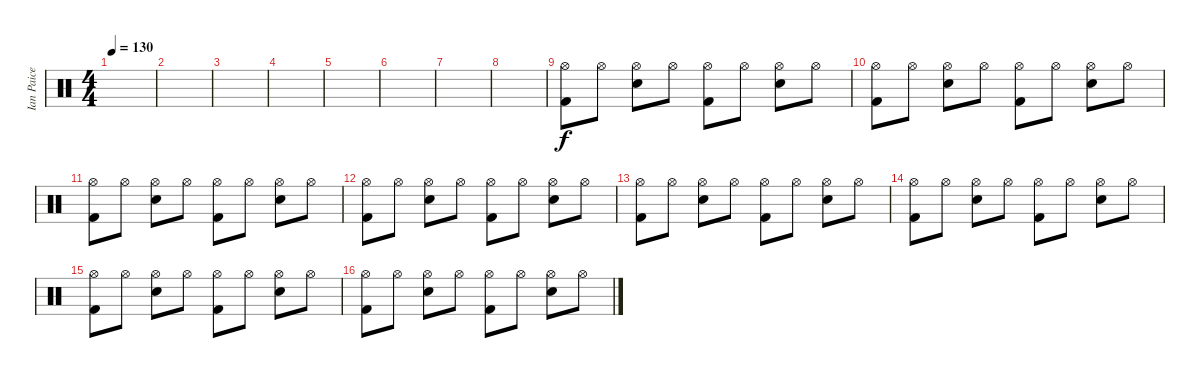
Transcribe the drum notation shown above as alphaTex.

\track ("Ian Paice" "Ian Paice") {instrument percussion}
\staff {score}
\articulation defaults
\ts (4 4)
\tempo 130
\clef neutral
\ks c
|
|
|
|
|
|
|
|
("Hi-Hat (open)" "Kick (hit) 2").8 "Hi-Hat (open)".8 ("Hi-Hat (open)" "Snare (hit) 2").8 "Hi-Hat (open)".8 ("Hi-Hat (open)" "Kick (hit) 2").8 "Hi-Hat (open)".8 ("Hi-Hat (open)" "Snare (hit) 2").8 "Hi-Hat (open)".8 |
("Hi-Hat (open)" "Kick (hit) 2").8 "Hi-Hat (open)".8 ("Hi-Hat (open)" "Snare (hit) 2").8 "Hi-Hat (open)".8 ("Hi-Hat (open)" "Kick (hit) 2").8 "Hi-Hat (open)".8 ("Hi-Hat (open)" "Snare (hit) 2").8 "Hi-Hat (open)".8 |
("Hi-Hat (open)" "Kick (hit) 2").8 "Hi-Hat (open)".8 ("Hi-Hat (open)" "Snare (hit) 2").8 "Hi-Hat (open)".8 ("Hi-Hat (open)" "Kick (hit) 2").8 "Hi-Hat (open)".8 ("Hi-Hat (open)" "Snare (hit) 2").8 "Hi-Hat (open)".8 |
("Hi-Hat (open)" "Kick (hit) 2").8 "Hi-Hat (open)".8 ("Hi-Hat (open)" "Snare (hit) 2").8 "Hi-Hat (open)".8 ("Hi-Hat (open)" "Kick (hit) 2").8 "Hi-Hat (open)".8 ("Hi-Hat (open)" "Snare (hit) 2").8 "Hi-Hat (open)".8 |
("Hi-Hat (open)" "Kick (hit) 2").8 "Hi-Hat (open)".8 ("Hi-Hat (open)" "Snare (hit) 2").8 "Hi-Hat (open)".8 ("Hi-Hat (open)" "Kick (hit) 2").8 "Hi-Hat (open)".8 ("Hi-Hat (open)" "Snare (hit) 2").8 "Hi-Hat (open)".8 |
("Hi-Hat (open)" "Kick (hit) 2").8 "Hi-Hat (open)".8 ("Hi-Hat (open)" "Snare (hit) 2").8 "Hi-Hat (open)".8 ("Hi-Hat (open)" "Kick (hit) 2").8 "Hi-Hat (open)".8 ("Hi-Hat (open)" "Snare (hit) 2").8 "Hi-Hat (open)".8 |
("Hi-Hat (open)" "Kick (hit) 2").8 "Hi-Hat (open)".8 ("Hi-Hat (open)" "Snare (hit) 2").8 "Hi-Hat (open)".8 ("Hi-Hat (open)" "Kick (hit) 2").8 "Hi-Hat (open)".8 ("Hi-Hat (open)" "Snare (hit) 2").8 "Hi-Hat (open)".8 |
("Hi-Hat (open)" "Kick (hit) 2").8 "Hi-Hat (open)".8 ("Hi-Hat (open)" "Snare (hit) 2").8 "Hi-Hat (open)".8 ("Hi-Hat (open)" "Kick (hit) 2").8 "Hi-Hat (open)".8 ("Hi-Hat (open)" "Snare (hit) 2").8 "Hi-Hat (open)".8
